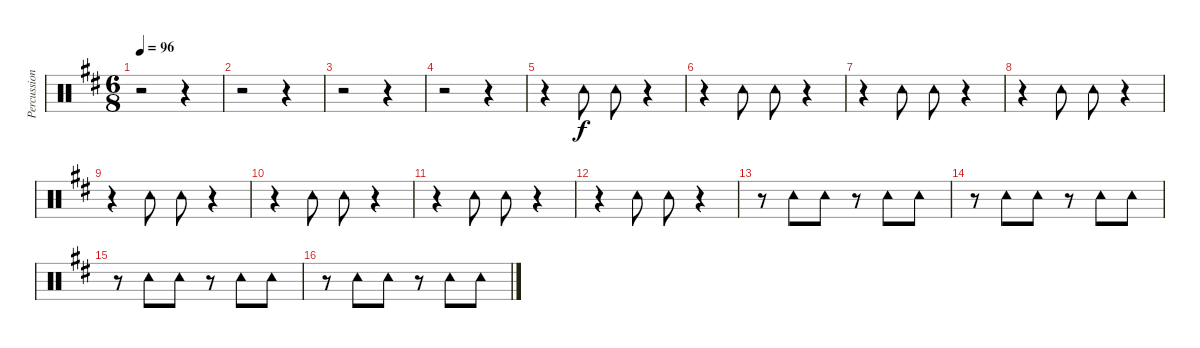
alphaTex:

\track ("Percussion" "Percussion") {instrument percussion}
\staff {score}
\articulation defaults
\ts (6 8)
\tempo 96
\clef neutral
\ks bminor
r.2{dy f} r.4 |
r.2 r.4 |
r.2 r.4 |
r.2 r.4 |
r.4 "Tambourine (hit)".8 "Tambourine (hit)".8 r.4 |
r.4 "Tambourine (hit)".8 "Tambourine (hit)".8 r.4 |
r.4 "Tambourine (hit)".8 "Tambourine (hit)".8 r.4 |
r.4 "Tambourine (hit)".8 "Tambourine (hit)".8 r.4 |
r.4 "Tambourine (hit)".8 "Tambourine (hit)".8 r.4 |
r.4 "Tambourine (hit)".8 "Tambourine (hit)".8 r.4 |
r.4 "Tambourine (hit)".8 "Tambourine (hit)".8 r.4 |
r.4 "Tambourine (hit)".8 "Tambourine (hit)".8 r.4 |
r.8 "Tambourine (hit)".8 "Tambourine (hit)".8 r.8 "Tambourine (hit)".8 "Tambourine (hit)".8 |
r.8 "Tambourine (hit)".8 "Tambourine (hit)".8 r.8 "Tambourine (hit)".8 "Tambourine (hit)".8 |
r.8 "Tambourine (hit)".8 "Tambourine (hit)".8 r.8 "Tambourine (hit)".8 "Tambourine (hit)".8 |
r.8 "Tambourine (hit)".8 "Tambourine (hit)".8 r.8 "Tambourine (hit)".8 "Tambourine (hit)".8
